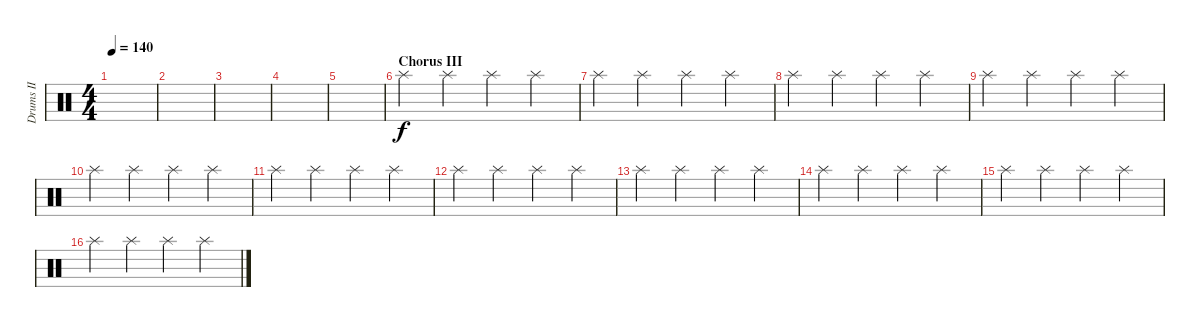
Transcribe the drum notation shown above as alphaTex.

\track ("Drums II" "Drums II") {instrument percussion}
\staff {score}
\articulation defaults
\ts (4 4)
\tempo 140
\clef neutral
\ks c
|
|
|
|
|
\section ("" "Chorus III")
"Splash (hit)".4{volume 13} "Splash (hit)".4 "Splash (hit)".4 "Splash (hit)".4 |
"Splash (hit)".4 "Splash (hit)".4 "Splash (hit)".4 "Splash (hit)".4 |
"Splash (hit)".4 "Splash (hit)".4 "Splash (hit)".4 "Splash (hit)".4 |
"Splash (hit)".4 "Splash (hit)".4 "Splash (hit)".4 "Splash (hit)".4 |
"Splash (hit)".4 "Splash (hit)".4 "Splash (hit)".4 "Splash (hit)".4 |
"Splash (hit)".4 "Splash (hit)".4 "Splash (hit)".4 "Splash (hit)".4 |
"Splash (hit)".4 "Splash (hit)".4 "Splash (hit)".4 "Splash (hit)".4 |
"Splash (hit)".4 "Splash (hit)".4 "Splash (hit)".4 "Splash (hit)".4 |
"Splash (hit)".4 "Splash (hit)".4 "Splash (hit)".4 "Splash (hit)".4 |
"Splash (hit)".4 "Splash (hit)".4 "Splash (hit)".4 "Splash (hit)".4 |
"Splash (hit)".4 "Splash (hit)".4 "Splash (hit)".4 "Splash (hit)".4
